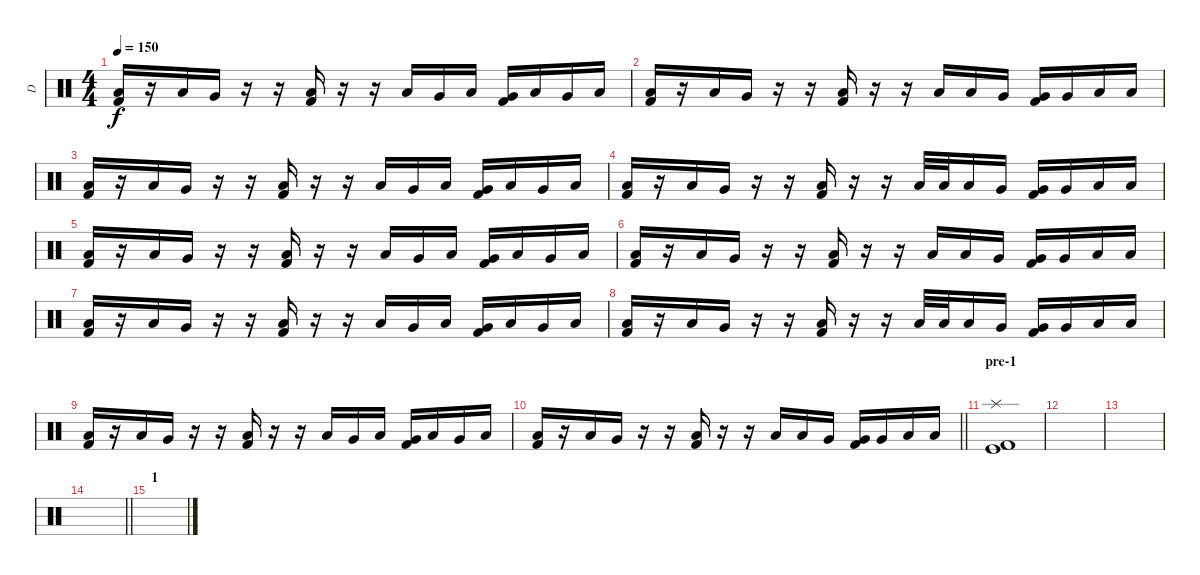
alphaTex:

\track ("D" "D") {instrument percussion}
\staff {score}
\articulation defaults
\ts (4 4)
\tempo 150
\clef neutral
\ks c
("Low Floor Tom (hit)" "Kick (hit) 2").16{dy f} r.16 "Low Floor Tom (hit)".16 "Very Low Tom (hit)".16 r.16 r.16 ("Low Floor Tom (hit)" "Kick (hit) 2").16 r.16 r.16 "Low Floor Tom (hit)".16 "Very Low Tom (hit)".16 "Low Floor Tom (hit)".16 ("Very Low Tom (hit)" "Kick (hit) 2").16 "Low Floor Tom (hit)".16 "Very Low Tom (hit)".16 "Low Floor Tom (hit)".16 |
("Low Floor Tom (hit)" "Kick (hit) 2").16 r.16 "Low Floor Tom (hit)".16 "Very Low Tom (hit)".16 r.16 r.16 ("Low Floor Tom (hit)" "Kick (hit) 2").16 r.16 r.16 "Low Tom (hit)".16 "Low Tom (hit)".16 "Very Low Tom (hit)".16 ("Very Low Tom (hit)" "Kick (hit) 2").16 "Very Low Tom (hit)".16 "Low Floor Tom (hit)".16 "Low Floor Tom (hit)".16 |
("Low Floor Tom (hit)" "Kick (hit) 2").16 r.16 "Low Floor Tom (hit)".16 "Very Low Tom (hit)".16 r.16 r.16 ("Low Floor Tom (hit)" "Kick (hit) 2").16 r.16 r.16 "Low Floor Tom (hit)".16 "Very Low Tom (hit)".16 "Low Floor Tom (hit)".16 ("Very Low Tom (hit)" "Kick (hit) 2").16 "Low Floor Tom (hit)".16 "Very Low Tom (hit)".16 "Low Floor Tom (hit)".16 |
("Low Floor Tom (hit)" "Kick (hit) 2").16 r.16 "Low Floor Tom (hit)".16 "Very Low Tom (hit)".16 r.16 r.16 ("Low Floor Tom (hit)" "Kick (hit) 2").16 r.16 r.16 "Low Tom (hit)".32 "Low Tom (hit)".32 "Low Tom (hit)".16 "Very Low Tom (hit)".16 ("Very Low Tom (hit)" "Kick (hit) 2").16 "Very Low Tom (hit)".16 "Low Floor Tom (hit)".16 "Low Floor Tom (hit)".16 |
("Low Floor Tom (hit)" "Kick (hit) 2").16 r.16 "Low Floor Tom (hit)".16 "Very Low Tom (hit)".16 r.16 r.16 ("Low Floor Tom (hit)" "Kick (hit) 2").16 r.16 r.16 "Low Floor Tom (hit)".16 "Very Low Tom (hit)".16 "Low Floor Tom (hit)".16 ("Very Low Tom (hit)" "Kick (hit) 2").16 "Low Floor Tom (hit)".16 "Very Low Tom (hit)".16 "Low Floor Tom (hit)".16 |
("Low Floor Tom (hit)" "Kick (hit) 2").16 r.16 "Low Floor Tom (hit)".16 "Very Low Tom (hit)".16 r.16 r.16 ("Low Floor Tom (hit)" "Kick (hit) 2").16 r.16 r.16 "Low Tom (hit)".16 "Low Tom (hit)".16 "Very Low Tom (hit)".16 ("Very Low Tom (hit)" "Kick (hit) 2").16 "Very Low Tom (hit)".16 "Low Floor Tom (hit)".16 "Low Floor Tom (hit)".16 |
("Low Floor Tom (hit)" "Kick (hit) 2").16 r.16 "Low Floor Tom (hit)".16 "Very Low Tom (hit)".16 r.16 r.16 ("Low Floor Tom (hit)" "Kick (hit) 2").16 r.16 r.16 "Low Floor Tom (hit)".16 "Very Low Tom (hit)".16 "Low Floor Tom (hit)".16 ("Very Low Tom (hit)" "Kick (hit) 2").16 "Low Floor Tom (hit)".16 "Very Low Tom (hit)".16 "Low Floor Tom (hit)".16 |
("Low Floor Tom (hit)" "Kick (hit) 2").16 r.16 "Low Floor Tom (hit)".16 "Very Low Tom (hit)".16 r.16 r.16 ("Low Floor Tom (hit)" "Kick (hit) 2").16 r.16 r.16 "Low Tom (hit)".32 "Low Tom (hit)".32 "Low Tom (hit)".16 "Very Low Tom (hit)".16 ("Very Low Tom (hit)" "Kick (hit) 2").16 "Very Low Tom (hit)".16 "Low Floor Tom (hit)".16 "Low Floor Tom (hit)".16 |
("Low Floor Tom (hit)" "Kick (hit) 2").16 r.16 "Low Floor Tom (hit)".16 "Very Low Tom (hit)".16 r.16 r.16 ("Low Floor Tom (hit)" "Kick (hit) 2").16 r.16 r.16 "Low Floor Tom (hit)".16 "Very Low Tom (hit)".16 "Low Floor Tom (hit)".16 ("Very Low Tom (hit)" "Kick (hit) 2").16 "Low Floor Tom (hit)".16 "Very Low Tom (hit)".16 "Low Floor Tom (hit)".16 |
\barLineRight lightlight
("Low Floor Tom (hit)" "Kick (hit) 2").16 r.16 "Low Floor Tom (hit)".16 "Very Low Tom (hit)".16 r.16 r.16 ("Low Floor Tom (hit)" "Kick (hit) 2").16 r.16 r.16 "Low Tom (hit)".16 "Low Tom (hit)".16 "Very Low Tom (hit)".16 ("Very Low Tom (hit)" "Kick (hit) 2").16 "Very Low Tom (hit)".16 "Low Floor Tom (hit)".16 "Low Floor Tom (hit)".16 |
\section ("" "pre-1")
("Splash (hit)" "Kick (hit) 2" "Kick (hit)").1 |
|
|
\barLineRight lightlight
|
\section ("" "1")
